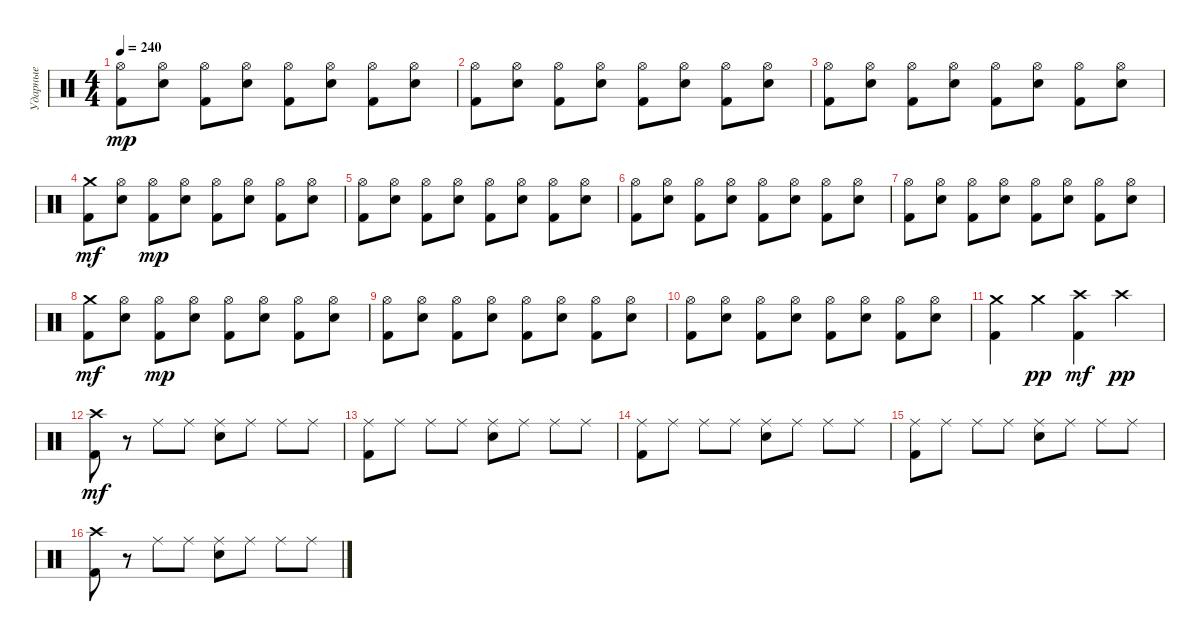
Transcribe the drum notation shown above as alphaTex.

\track ("Ударные" "Ударные") {instrument percussion}
\staff {score}
\articulation defaults
\ts (4 4)
\tempo 240
\clef neutral
\ks c
("Hi-Hat (open)" "Kick (hit) 2").8{dy mp} ("Hi-Hat (open)" "Snare (hit) 2").8 ("Hi-Hat (open)" "Kick (hit) 2").8 ("Hi-Hat (open)" "Snare (hit) 2").8 ("Hi-Hat (open)" "Kick (hit) 2").8 ("Hi-Hat (open)" "Snare (hit) 2").8 ("Hi-Hat (open)" "Kick (hit) 2").8 ("Hi-Hat (open)" "Snare (hit) 2").8 |
("Hi-Hat (open)" "Kick (hit) 2").8 ("Hi-Hat (open)" "Snare (hit) 2").8 ("Hi-Hat (open)" "Kick (hit) 2").8 ("Hi-Hat (open)" "Snare (hit) 2").8 ("Hi-Hat (open)" "Kick (hit) 2").8 ("Hi-Hat (open)" "Snare (hit) 2").8 ("Hi-Hat (open)" "Kick (hit) 2").8 ("Hi-Hat (open)" "Snare (hit) 2").8 |
("Hi-Hat (open)" "Kick (hit) 2").8 ("Hi-Hat (open)" "Snare (hit) 2").8 ("Hi-Hat (open)" "Kick (hit) 2").8 ("Hi-Hat (open)" "Snare (hit) 2").8 ("Hi-Hat (open)" "Kick (hit) 2").8 ("Hi-Hat (open)" "Snare (hit) 2").8 ("Hi-Hat (open)" "Kick (hit) 2").8 ("Hi-Hat (open)" "Snare (hit) 2").8 |
("Crash medium (hit)" "Kick (hit) 2").8{dy mf} ("Hi-Hat (open)" "Snare (hit) 2").8 ("Hi-Hat (open)" "Kick (hit) 2").8{dy mp} ("Hi-Hat (open)" "Snare (hit) 2").8 ("Hi-Hat (open)" "Kick (hit) 2").8 ("Hi-Hat (open)" "Snare (hit) 2").8 ("Hi-Hat (open)" "Kick (hit) 2").8 ("Hi-Hat (open)" "Snare (hit) 2").8 |
("Hi-Hat (open)" "Kick (hit) 2").8 ("Hi-Hat (open)" "Snare (hit) 2").8 ("Hi-Hat (open)" "Kick (hit) 2").8 ("Hi-Hat (open)" "Snare (hit) 2").8 ("Hi-Hat (open)" "Kick (hit) 2").8 ("Hi-Hat (open)" "Snare (hit) 2").8 ("Hi-Hat (open)" "Kick (hit) 2").8 ("Hi-Hat (open)" "Snare (hit) 2").8 |
("Hi-Hat (open)" "Kick (hit) 2").8 ("Hi-Hat (open)" "Snare (hit) 2").8 ("Hi-Hat (open)" "Kick (hit) 2").8 ("Hi-Hat (open)" "Snare (hit) 2").8 ("Hi-Hat (open)" "Kick (hit) 2").8 ("Hi-Hat (open)" "Snare (hit) 2").8 ("Hi-Hat (open)" "Kick (hit) 2").8 ("Hi-Hat (open)" "Snare (hit) 2").8 |
("Hi-Hat (open)" "Kick (hit) 2").8 ("Hi-Hat (open)" "Snare (hit) 2").8 ("Hi-Hat (open)" "Kick (hit) 2").8 ("Hi-Hat (open)" "Snare (hit) 2").8 ("Hi-Hat (open)" "Kick (hit) 2").8 ("Hi-Hat (open)" "Snare (hit) 2").8 ("Hi-Hat (open)" "Kick (hit) 2").8 ("Hi-Hat (open)" "Snare (hit) 2").8 |
("Crash medium (hit)" "Kick (hit) 2").8{dy mf} ("Hi-Hat (open)" "Snare (hit) 2").8 ("Hi-Hat (open)" "Kick (hit) 2").8{dy mp} ("Hi-Hat (open)" "Snare (hit) 2").8 ("Hi-Hat (open)" "Kick (hit) 2").8 ("Hi-Hat (open)" "Snare (hit) 2").8 ("Hi-Hat (open)" "Kick (hit) 2").8 ("Hi-Hat (open)" "Snare (hit) 2").8 |
("Hi-Hat (open)" "Kick (hit) 2").8 ("Hi-Hat (open)" "Snare (hit) 2").8 ("Hi-Hat (open)" "Kick (hit) 2").8 ("Hi-Hat (open)" "Snare (hit) 2").8 ("Hi-Hat (open)" "Kick (hit) 2").8 ("Hi-Hat (open)" "Snare (hit) 2").8 ("Hi-Hat (open)" "Kick (hit) 2").8 ("Hi-Hat (open)" "Snare (hit) 2").8 |
("Hi-Hat (open)" "Kick (hit) 2").8 ("Hi-Hat (open)" "Snare (hit) 2").8 ("Hi-Hat (open)" "Kick (hit) 2").8 ("Hi-Hat (open)" "Snare (hit) 2").8 ("Hi-Hat (open)" "Kick (hit) 2").8 ("Hi-Hat (open)" "Snare (hit) 2").8 ("Hi-Hat (open)" "Kick (hit) 2").8 ("Hi-Hat (open)" "Snare (hit) 2").8 |
("Crash medium (hit)" "Kick (hit) 2").4 "Crash medium (hit)".4{dy pp} ("Crash high (hit)" "Kick (hit) 2").4{dy mf} "Crash high (hit)".4{dy pp} |
("Crash high (hit)" "Kick (hit) 2").8{dy mf} r.8 "Ride (middle)".8 "Ride (middle)".8 ("Ride (middle)" "Snare (hit) 2").8 "Ride (middle)".8 "Ride (middle)".8 "Ride (middle)".8 |
("Ride (middle)" "Kick (hit) 2").8 "Ride (middle)".8 "Ride (middle)".8 "Ride (middle)".8 ("Ride (middle)" "Snare (hit) 2").8 "Ride (middle)".8 "Ride (middle)".8 "Ride (middle)".8 |
("Ride (middle)" "Kick (hit) 2").8 "Ride (middle)".8 "Ride (middle)".8 "Ride (middle)".8 ("Ride (middle)" "Snare (hit) 2").8 "Ride (middle)".8 "Ride (middle)".8 "Ride (middle)".8 |
("Ride (middle)" "Kick (hit) 2").8 "Ride (middle)".8 "Ride (middle)".8 "Ride (middle)".8 ("Ride (middle)" "Snare (hit) 2").8 "Ride (middle)".8 "Ride (middle)".8 "Ride (middle)".8 |
("Crash high (hit)" "Kick (hit) 2").8 r.8 "Ride (middle)".8 "Ride (middle)".8 ("Ride (middle)" "Snare (hit) 2").8 "Ride (middle)".8 "Ride (middle)".8 "Ride (middle)".8
